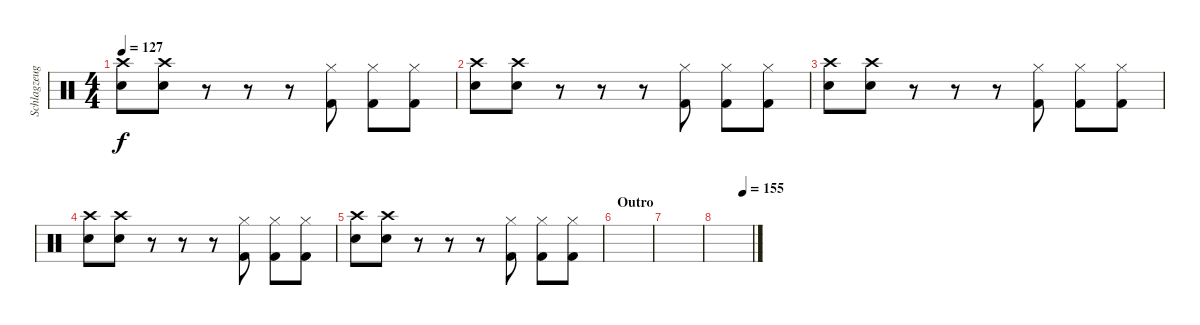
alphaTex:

\track ("Schlagzeug" "Schlagzeug") {instrument percussion}
\staff {score}
\articulation defaults
\ts (4 4)
\tempo 127
\clef neutral
\ks c
("Snare (hit) 2" "Crash high (hit)").8{dy f} ("Snare (hit) 2" "Crash high (hit)").8 r.8 r.8 r.8 ("Kick (hit) 2" "Hi-Hat (closed)").8 ("Kick (hit) 2" "Hi-Hat (closed)").8 ("Kick (hit) 2" "Hi-Hat (closed)").8 |
("Snare (hit) 2" "Crash high (hit)").8 ("Snare (hit) 2" "Crash high (hit)").8 r.8 r.8 r.8 ("Kick (hit) 2" "Hi-Hat (closed)").8 ("Kick (hit) 2" "Hi-Hat (closed)").8 ("Kick (hit) 2" "Hi-Hat (closed)").8 |
("Snare (hit) 2" "Crash high (hit)").8 ("Snare (hit) 2" "Crash high (hit)").8 r.8 r.8 r.8 ("Kick (hit) 2" "Hi-Hat (closed)").8 ("Kick (hit) 2" "Hi-Hat (closed)").8 ("Kick (hit) 2" "Hi-Hat (closed)").8 |
("Snare (hit) 2" "Crash high (hit)").8 ("Snare (hit) 2" "Crash high (hit)").8 r.8 r.8 r.8 ("Kick (hit) 2" "Hi-Hat (closed)").8 ("Kick (hit) 2" "Hi-Hat (closed)").8 ("Kick (hit) 2" "Hi-Hat (closed)").8 |
("Snare (hit) 2" "Crash high (hit)").8 ("Snare (hit) 2" "Crash high (hit)").8 r.8 r.8 r.8 ("Kick (hit) 2" "Hi-Hat (closed)").8 ("Kick (hit) 2" "Hi-Hat (closed)").8 ("Kick (hit) 2" "Hi-Hat (closed)").8 |
\section ("" "Outro")
|
|
\tempo (155 0.75)
